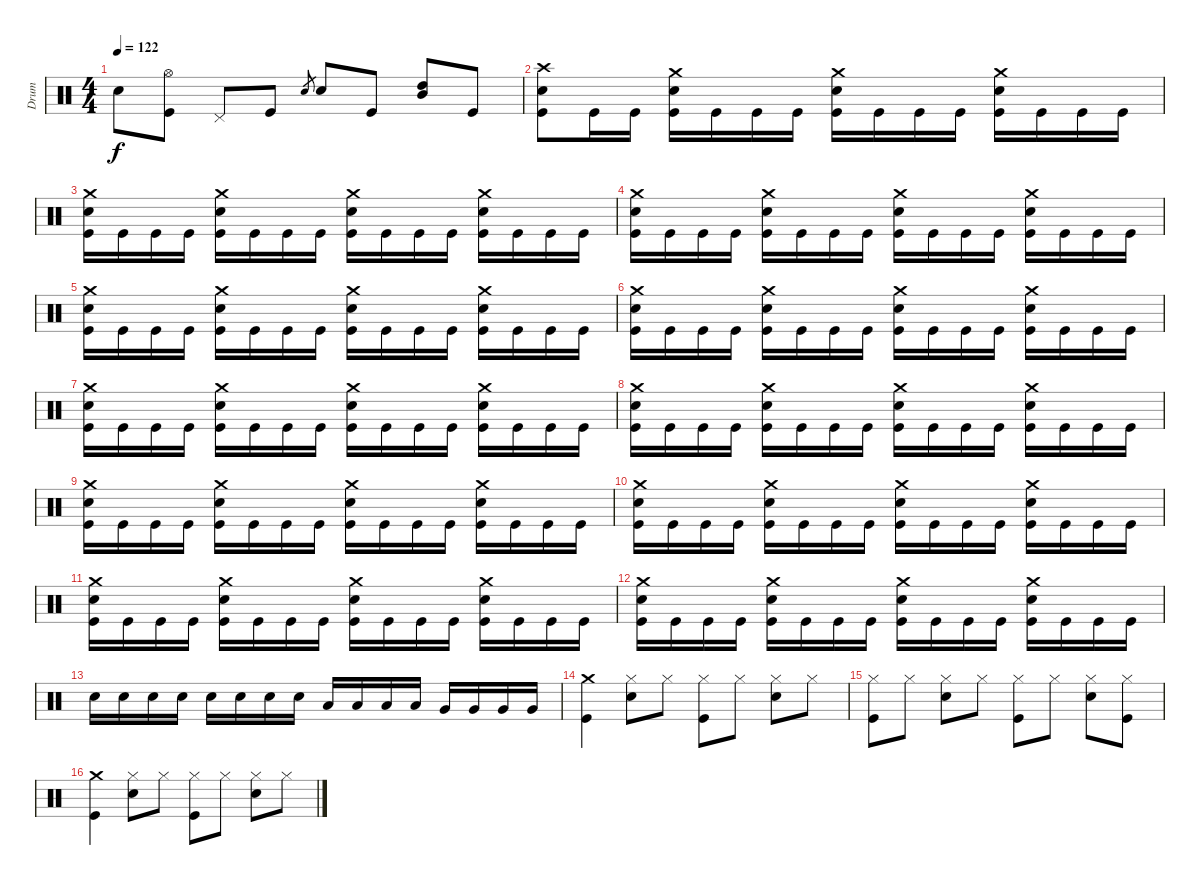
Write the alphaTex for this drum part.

\track ("Drum" "Drum") {instrument percussion}
\staff {score}
\articulation defaults
\ts (4 4)
\tempo 122
\clef neutral
\ks c "Electric Snare (hit)".8{dy f}
("Kick (hit)" "Hi-Hat (open)").8 "Pedal Hi-Hat (hit)".8 "Kick (hit)".8 "Electric Snare (hit)".8{gr} "Electric Snare (hit)".8 "Kick (hit)".8 ("Mid Tom (hit)" "High Tom (hit)").8 "Kick (hit)".8 |
("Kick (hit)" "Electric Snare (hit)" "Crash high (hit)").8 "Kick (hit)".16 "Kick (hit)".16 ("Kick (hit)" "Electric Snare (hit)" "Crash medium (hit)").16 "Kick (hit)".16 "Kick (hit)".16 "Kick (hit)".16 ("Kick (hit)" "Electric Snare (hit)" "Crash medium (hit)").16 "Kick (hit)".16 "Kick (hit)".16 "Kick (hit)".16 ("Kick (hit)" "Electric Snare (hit)" "Crash medium (hit)").16 "Kick (hit)".16 "Kick (hit)".16 "Kick (hit)".16 |
("Kick (hit)" "Electric Snare (hit)" "Crash medium (hit)").16 "Kick (hit)".16 "Kick (hit)".16 "Kick (hit)".16 ("Kick (hit)" "Electric Snare (hit)" "Crash medium (hit)").16 "Kick (hit)".16 "Kick (hit)".16 "Kick (hit)".16 ("Kick (hit)" "Electric Snare (hit)" "Crash medium (hit)").16 "Kick (hit)".16 "Kick (hit)".16 "Kick (hit)".16 ("Kick (hit)" "Electric Snare (hit)" "Crash medium (hit)").16 "Kick (hit)".16 "Kick (hit)".16 "Kick (hit)".16 |
("Kick (hit)" "Electric Snare (hit)" "Crash medium (hit)").16 "Kick (hit)".16 "Kick (hit)".16 "Kick (hit)".16 ("Kick (hit)" "Electric Snare (hit)" "Crash medium (hit)").16 "Kick (hit)".16 "Kick (hit)".16 "Kick (hit)".16 ("Kick (hit)" "Electric Snare (hit)" "Crash medium (hit)").16 "Kick (hit)".16 "Kick (hit)".16 "Kick (hit)".16 ("Kick (hit)" "Electric Snare (hit)" "Crash medium (hit)").16 "Kick (hit)".16 "Kick (hit)".16 "Kick (hit)".16 |
("Kick (hit)" "Electric Snare (hit)" "Crash medium (hit)").16 "Kick (hit)".16 "Kick (hit)".16 "Kick (hit)".16 ("Kick (hit)" "Electric Snare (hit)" "Crash medium (hit)").16 "Kick (hit)".16 "Kick (hit)".16 "Kick (hit)".16 ("Kick (hit)" "Electric Snare (hit)" "Crash medium (hit)").16 "Kick (hit)".16 "Kick (hit)".16 "Kick (hit)".16 ("Kick (hit)" "Electric Snare (hit)" "Crash medium (hit)").16 "Kick (hit)".16 "Kick (hit)".16 "Kick (hit)".16 |
("Kick (hit)" "Electric Snare (hit)" "Crash medium (hit)").16 "Kick (hit)".16 "Kick (hit)".16 "Kick (hit)".16 ("Kick (hit)" "Electric Snare (hit)" "Crash medium (hit)").16 "Kick (hit)".16 "Kick (hit)".16 "Kick (hit)".16 ("Kick (hit)" "Electric Snare (hit)" "Crash medium (hit)").16 "Kick (hit)".16 "Kick (hit)".16 "Kick (hit)".16 ("Kick (hit)" "Electric Snare (hit)" "Crash medium (hit)").16 "Kick (hit)".16 "Kick (hit)".16 "Kick (hit)".16 |
("Kick (hit)" "Electric Snare (hit)" "Crash medium (hit)").16 "Kick (hit)".16 "Kick (hit)".16 "Kick (hit)".16 ("Kick (hit)" "Electric Snare (hit)" "Crash medium (hit)").16 "Kick (hit)".16 "Kick (hit)".16 "Kick (hit)".16 ("Kick (hit)" "Electric Snare (hit)" "Crash medium (hit)").16 "Kick (hit)".16 "Kick (hit)".16 "Kick (hit)".16 ("Kick (hit)" "Electric Snare (hit)" "Crash medium (hit)").16 "Kick (hit)".16 "Kick (hit)".16 "Kick (hit)".16 |
("Kick (hit)" "Electric Snare (hit)" "Crash medium (hit)").16 "Kick (hit)".16 "Kick (hit)".16 "Kick (hit)".16 ("Kick (hit)" "Electric Snare (hit)" "Crash medium (hit)").16 "Kick (hit)".16 "Kick (hit)".16 "Kick (hit)".16 ("Kick (hit)" "Electric Snare (hit)" "Crash medium (hit)").16 "Kick (hit)".16 "Kick (hit)".16 "Kick (hit)".16 ("Kick (hit)" "Electric Snare (hit)" "Crash medium (hit)").16 "Kick (hit)".16 "Kick (hit)".16 "Kick (hit)".16 |
("Kick (hit)" "Electric Snare (hit)" "Crash medium (hit)").16 "Kick (hit)".16 "Kick (hit)".16 "Kick (hit)".16 ("Kick (hit)" "Electric Snare (hit)" "Crash medium (hit)").16 "Kick (hit)".16 "Kick (hit)".16 "Kick (hit)".16 ("Kick (hit)" "Electric Snare (hit)" "Crash medium (hit)").16 "Kick (hit)".16 "Kick (hit)".16 "Kick (hit)".16 ("Kick (hit)" "Electric Snare (hit)" "Crash medium (hit)").16 "Kick (hit)".16 "Kick (hit)".16 "Kick (hit)".16 |
("Kick (hit)" "Electric Snare (hit)" "Crash medium (hit)").16 "Kick (hit)".16 "Kick (hit)".16 "Kick (hit)".16 ("Kick (hit)" "Electric Snare (hit)" "Crash medium (hit)").16 "Kick (hit)".16 "Kick (hit)".16 "Kick (hit)".16 ("Kick (hit)" "Electric Snare (hit)" "Crash medium (hit)").16 "Kick (hit)".16 "Kick (hit)".16 "Kick (hit)".16 ("Kick (hit)" "Electric Snare (hit)" "Crash medium (hit)").16 "Kick (hit)".16 "Kick (hit)".16 "Kick (hit)".16 |
("Kick (hit)" "Electric Snare (hit)" "Crash medium (hit)").16 "Kick (hit)".16 "Kick (hit)".16 "Kick (hit)".16 ("Kick (hit)" "Electric Snare (hit)" "Crash medium (hit)").16 "Kick (hit)".16 "Kick (hit)".16 "Kick (hit)".16 ("Kick (hit)" "Electric Snare (hit)" "Crash medium (hit)").16 "Kick (hit)".16 "Kick (hit)".16 "Kick (hit)".16 ("Kick (hit)" "Electric Snare (hit)" "Crash medium (hit)").16 "Kick (hit)".16 "Kick (hit)".16 "Kick (hit)".16 |
("Kick (hit)" "Electric Snare (hit)" "Crash medium (hit)").16 "Kick (hit)".16 "Kick (hit)".16 "Kick (hit)".16 ("Kick (hit)" "Electric Snare (hit)" "Crash medium (hit)").16 "Kick (hit)".16 "Kick (hit)".16 "Kick (hit)".16 ("Kick (hit)" "Electric Snare (hit)" "Crash medium (hit)").16 "Kick (hit)".16 "Kick (hit)".16 "Kick (hit)".16 ("Kick (hit)" "Electric Snare (hit)" "Crash medium (hit)").16 "Kick (hit)".16 "Kick (hit)".16 "Kick (hit)".16 |
"Electric Snare (hit)".16 "Electric Snare (hit)".16 "Electric Snare (hit)".16 "Electric Snare (hit)".16 "Electric Snare (hit)".16 "Electric Snare (hit)".16 "Electric Snare (hit)".16 "Electric Snare (hit)".16 "Low Tom (hit)".16 "Low Tom (hit)".16 "Low Tom (hit)".16 "Low Tom (hit)".16 "Very Low Tom (hit)".16 "Very Low Tom (hit)".16 "Very Low Tom (hit)".16 "Very Low Tom (hit)".16 |
("Kick (hit)" "Crash medium (hit)").4 ("Electric Snare (hit)" "Hi-Hat (closed)").8 "Hi-Hat (closed)".8 ("Kick (hit)" "Hi-Hat (closed)").8 "Hi-Hat (closed)".8 ("Electric Snare (hit)" "Hi-Hat (closed)").8 "Hi-Hat (closed)".8 |
("Kick (hit)" "Hi-Hat (closed)").8 "Hi-Hat (closed)".8 ("Electric Snare (hit)" "Hi-Hat (closed)").8 "Hi-Hat (closed)".8 ("Kick (hit)" "Hi-Hat (closed)").8 "Hi-Hat (closed)".8 ("Electric Snare (hit)" "Hi-Hat (closed)").8 ("Kick (hit)" "Hi-Hat (closed)").8 |
("Kick (hit)" "Crash medium (hit)").4 ("Electric Snare (hit)" "Hi-Hat (closed)").8 "Hi-Hat (closed)".8 ("Kick (hit)" "Hi-Hat (closed)").8 "Hi-Hat (closed)".8 ("Electric Snare (hit)" "Hi-Hat (closed)").8 "Hi-Hat (closed)".8
